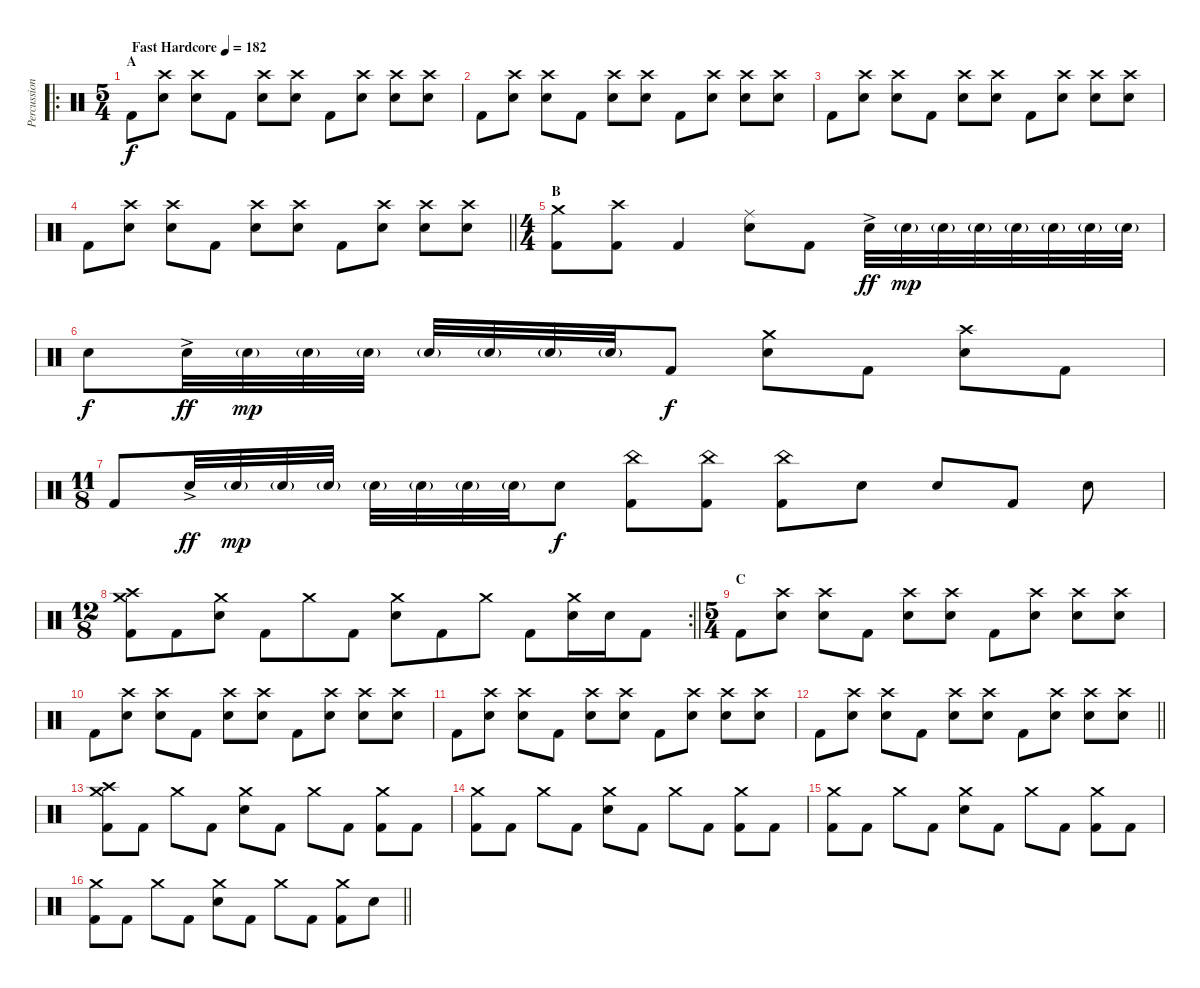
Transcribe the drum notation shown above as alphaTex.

\track ("Percussion" "Percussion") {instrument percussion}
\staff {score}
\articulation defaults
\ro
\ts (5 4)
\section ("" "A")
\tempo (182 "Fast Hardcore")
\clef neutral
\ks c "Kick (hit) 2".8{dy f}
("Crash high (hit)" "Electric Snare (hit)").8 ("Crash high (hit)" "Electric Snare (hit)").8 "Kick (hit) 2".8 ("Crash high (hit)" "Electric Snare (hit)").8 ("Crash high (hit)" "Electric Snare (hit)").8 "Kick (hit) 2".8 ("Crash high (hit)" "Electric Snare (hit)").8 ("Crash high (hit)" "Electric Snare (hit)").8 ("Crash high (hit)" "Electric Snare (hit)").8 |
"Kick (hit) 2".8 ("Crash high (hit)" "Electric Snare (hit)").8 ("Crash high (hit)" "Electric Snare (hit)").8 "Kick (hit) 2".8 ("Crash high (hit)" "Electric Snare (hit)").8 ("Crash high (hit)" "Electric Snare (hit)").8 "Kick (hit) 2".8 ("Crash high (hit)" "Electric Snare (hit)").8 ("Crash high (hit)" "Electric Snare (hit)").8 ("Crash high (hit)" "Electric Snare (hit)").8 |
"Kick (hit) 2".8 ("Crash high (hit)" "Electric Snare (hit)").8 ("Crash high (hit)" "Electric Snare (hit)").8 "Kick (hit) 2".8 ("Crash high (hit)" "Electric Snare (hit)").8 ("Crash high (hit)" "Electric Snare (hit)").8 "Kick (hit) 2".8 ("Crash high (hit)" "Electric Snare (hit)").8 ("Crash high (hit)" "Electric Snare (hit)").8 ("Crash high (hit)" "Electric Snare (hit)").8 |
\barLineRight lightlight "Kick (hit) 2".8
("Crash high (hit)" "Electric Snare (hit)").8 ("Crash high (hit)" "Electric Snare (hit)").8 "Kick (hit) 2".8 ("Crash high (hit)" "Electric Snare (hit)").8 ("Crash high (hit)" "Electric Snare (hit)").8 "Kick (hit) 2".8 ("Crash high (hit)" "Electric Snare (hit)").8 ("Crash high (hit)" "Electric Snare (hit)").8 ("Crash high (hit)" "Electric Snare (hit)").8 |
\ts (4 4)
\section ("" "B")
("Crash medium (hit)" "Kick (hit) 2").8 ("Crash high (hit)" "Kick (hit) 2").8 "Kick (hit) 2".4 ("Ride (middle)" "Electric Snare (hit)").8 "Kick (hit) 2".8 "Electric Snare (hit)"{ac}.32{dy ff} "Electric Snare (hit)"{g}.32{dy mp} "Electric Snare (hit)"{g}.32 "Electric Snare (hit)"{g}.32 "Electric Snare (hit)"{g}.32 "Electric Snare (hit)"{g}.32 "Electric Snare (hit)"{g}.32 "Electric Snare (hit)"{g}.32 |
"Electric Snare (hit)".8{dy f} "Electric Snare (hit)"{ac}.32{dy ff} "Electric Snare (hit)"{g}.32{dy mp} "Electric Snare (hit)"{g}.32 "Electric Snare (hit)"{g}.32 "Electric Snare (hit)"{g}.32 "Electric Snare (hit)"{g}.32 "Electric Snare (hit)"{g}.32 "Electric Snare (hit)"{g}.32 "Kick (hit) 2".8{dy f} ("Crash medium (hit)" "Electric Snare (hit)").8 "Kick (hit) 2".8 ("Crash high (hit)" "Electric Snare (hit)").8 "Kick (hit) 2".8 |
\ts (11 8)
"Kick (hit) 2".8 "Electric Snare (hit)"{ac}.32{dy ff} "Electric Snare (hit)"{g}.32{dy mp} "Electric Snare (hit)"{g}.32 "Electric Snare (hit)"{g}.32 "Electric Snare (hit)"{g}.32 "Electric Snare (hit)"{g}.32 "Electric Snare (hit)"{g}.32 "Electric Snare (hit)"{g}.32 "Electric Snare (hit)".8{dy f} ("China (hit)" "Kick (hit) 2").8 ("China (hit)" "Kick (hit) 2").8 ("China (hit)" "Kick (hit) 2").8 "Electric Snare (hit)".8 "Electric Snare (hit)".8 "Kick (hit) 2".8 "Electric Snare (hit)".8 |
\rc 2
\ts (12 8)
\barLineRight lightlight
("Crash medium (hit)" "Crash high (hit)" "Kick (hit) 2").8 "Kick (hit) 2".8 ("Crash medium (hit)" "Electric Snare (hit)").8 "Kick (hit) 2".8 "Crash medium (hit)".8 "Kick (hit) 2".8 ("Crash medium (hit)" "Electric Snare (hit)").8 "Kick (hit) 2".8 "Crash medium (hit)".8 "Kick (hit) 2".8 ("Crash medium (hit)" "Electric Snare (hit)").16 "Electric Snare (hit)".16 "Kick (hit) 2".8 |
\ts (5 4)
\section ("" "C")
"Kick (hit) 2".8 ("Crash high (hit)" "Electric Snare (hit)").8 ("Crash high (hit)" "Electric Snare (hit)").8 "Kick (hit) 2".8 ("Crash high (hit)" "Electric Snare (hit)").8 ("Crash high (hit)" "Electric Snare (hit)").8 "Kick (hit) 2".8 ("Crash high (hit)" "Electric Snare (hit)").8 ("Crash high (hit)" "Electric Snare (hit)").8 ("Crash high (hit)" "Electric Snare (hit)").8 |
"Kick (hit) 2".8 ("Crash high (hit)" "Electric Snare (hit)").8 ("Crash high (hit)" "Electric Snare (hit)").8 "Kick (hit) 2".8 ("Crash high (hit)" "Electric Snare (hit)").8 ("Crash high (hit)" "Electric Snare (hit)").8 "Kick (hit) 2".8 ("Crash high (hit)" "Electric Snare (hit)").8 ("Crash high (hit)" "Electric Snare (hit)").8 ("Crash high (hit)" "Electric Snare (hit)").8 |
"Kick (hit) 2".8 ("Crash high (hit)" "Electric Snare (hit)").8 ("Crash high (hit)" "Electric Snare (hit)").8 "Kick (hit) 2".8 ("Crash high (hit)" "Electric Snare (hit)").8 ("Crash high (hit)" "Electric Snare (hit)").8 "Kick (hit) 2".8 ("Crash high (hit)" "Electric Snare (hit)").8 ("Crash high (hit)" "Electric Snare (hit)").8 ("Crash high (hit)" "Electric Snare (hit)").8 |
\barLineRight lightlight "Kick (hit) 2".8
("Crash high (hit)" "Electric Snare (hit)").8 ("Crash high (hit)" "Electric Snare (hit)").8 "Kick (hit) 2".8 ("Crash high (hit)" "Electric Snare (hit)").8 ("Crash high (hit)" "Electric Snare (hit)").8 "Kick (hit) 2".8 ("Crash high (hit)" "Electric Snare (hit)").8 ("Crash high (hit)" "Electric Snare (hit)").8 ("Crash high (hit)" "Electric Snare (hit)").8 |
("Crash medium (hit)" "Crash high (hit)" "Kick (hit) 2").8 "Kick (hit) 2".8 "Crash medium (hit)".8 "Kick (hit) 2".8 ("Crash medium (hit)" "Electric Snare (hit)").8 "Kick (hit) 2".8 "Crash medium (hit)".8 "Kick (hit) 2".8 ("Crash medium (hit)" "Kick (hit) 2").8 "Kick (hit) 2".8 |
("Crash medium (hit)" "Kick (hit) 2").8 "Kick (hit) 2".8 "Crash medium (hit)".8 "Kick (hit) 2".8 ("Crash medium (hit)" "Electric Snare (hit)").8 "Kick (hit) 2".8 "Crash medium (hit)".8 "Kick (hit) 2".8 ("Crash medium (hit)" "Kick (hit) 2").8 "Kick (hit) 2".8 |
("Crash medium (hit)" "Kick (hit) 2").8 "Kick (hit) 2".8 "Crash medium (hit)".8 "Kick (hit) 2".8 ("Crash medium (hit)" "Electric Snare (hit)").8 "Kick (hit) 2".8 "Crash medium (hit)".8 "Kick (hit) 2".8 ("Crash medium (hit)" "Kick (hit) 2").8 "Kick (hit) 2".8 |
\barLineRight lightlight
("Crash medium (hit)" "Kick (hit) 2").8 "Kick (hit) 2".8 "Crash medium (hit)".8 "Kick (hit) 2".8 ("Crash medium (hit)" "Electric Snare (hit)").8 "Kick (hit) 2".8 "Crash medium (hit)".8 "Kick (hit) 2".8 ("Crash medium (hit)" "Kick (hit) 2").8 "Electric Snare (hit)".8
